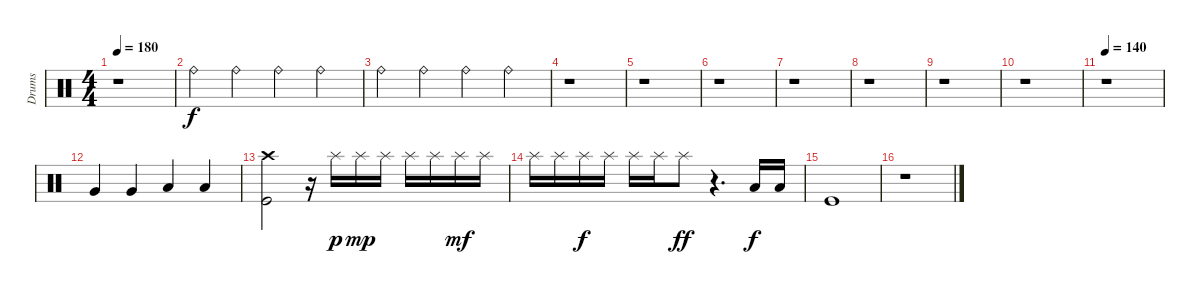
\track ("Drums" "Drums") {instrument percussion}
\staff {score}
\articulation defaults
\ts (4 4)
\tempo 180
\clef neutral
\ks c
r.1{dy f volume 0} |
"Ride (bell)".4{volume 16} "Ride (bell)".4 "Ride (bell)".4 "Ride (bell)".4 |
"Ride (bell)".4 "Ride (bell)".4 "Ride (bell)".4 "Ride (bell)".4 |
r.1 |
r.1 |
r.1 |
r.1 |
r.1 |
r.1 |
r.1 |
\tempo 140
r.1 |
"Very Low Tom (hit)".4 "Very Low Tom (hit)".4 "Low Floor Tom (hit)".4 "Low Floor Tom (hit)".4 |
("Crash high (hit)" "Kick (hit)").2 r.16 "Splash (hit)".16{dy p} "Splash (hit)".16{dy mp} "Splash (hit)".16 "Splash (hit)".16 "Splash (hit)".16 "Splash (hit)".16{dy mf} "Splash (hit)".16 |
"Splash (hit)".16 "Splash (hit)".16 "Splash (hit)".16{dy f} "Splash (hit)".16 "Splash (hit)".16 "Splash (hit)".16 "Splash (hit)".8{dy ff} r.4{d} "Low Floor Tom (hit)".16{dy f} "Low Floor Tom (hit)".16 |
"Kick (hit)".1 |
r.1
